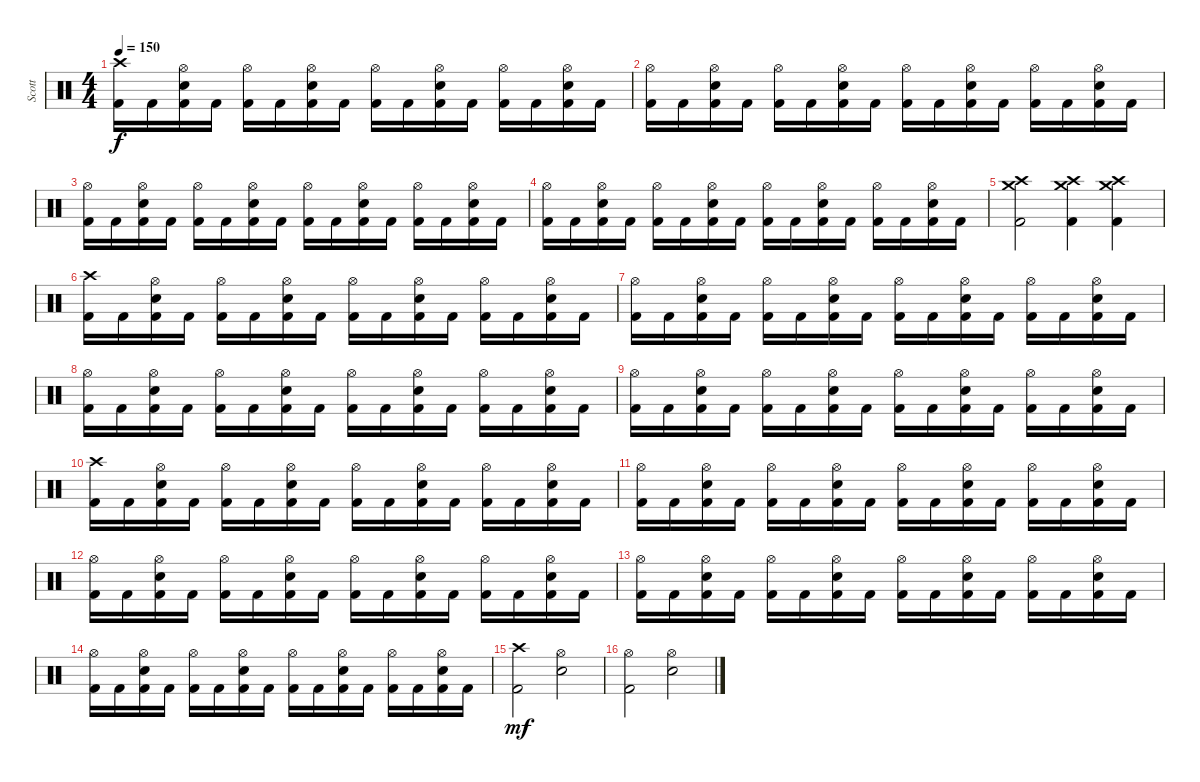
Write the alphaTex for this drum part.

\track ("Scott" "Scott") {instrument percussion}
\staff {score}
\articulation defaults
\ts (4 4)
\tempo 150
\clef neutral
\ks c
("Crash high (hit)" "Kick (hit) 2").16{dy f} "Kick (hit) 2".16 ("Hi-Hat (open)" "Snare (hit) 2" "Kick (hit) 2").16 "Kick (hit) 2".16 ("Hi-Hat (open)" "Kick (hit) 2").16 "Kick (hit) 2".16 ("Hi-Hat (open)" "Snare (hit) 2" "Kick (hit) 2").16 "Kick (hit) 2".16 ("Hi-Hat (open)" "Kick (hit) 2").16 "Kick (hit) 2".16 ("Hi-Hat (open)" "Snare (hit) 2" "Kick (hit) 2").16 "Kick (hit) 2".16 ("Hi-Hat (open)" "Kick (hit) 2").16 "Kick (hit) 2".16 ("Hi-Hat (open)" "Snare (hit) 2" "Kick (hit) 2").16 "Kick (hit) 2".16 |
("Hi-Hat (open)" "Kick (hit) 2").16 "Kick (hit) 2".16 ("Hi-Hat (open)" "Snare (hit) 2" "Kick (hit) 2").16 "Kick (hit) 2".16 ("Hi-Hat (open)" "Kick (hit) 2").16 "Kick (hit) 2".16 ("Hi-Hat (open)" "Snare (hit) 2" "Kick (hit) 2").16 "Kick (hit) 2".16 ("Hi-Hat (open)" "Kick (hit) 2").16 "Kick (hit) 2".16 ("Hi-Hat (open)" "Snare (hit) 2" "Kick (hit) 2").16 "Kick (hit) 2".16 ("Hi-Hat (open)" "Kick (hit) 2").16 "Kick (hit) 2".16 ("Hi-Hat (open)" "Snare (hit) 2" "Kick (hit) 2").16 "Kick (hit) 2".16 |
("Hi-Hat (open)" "Kick (hit) 2").16 "Kick (hit) 2".16 ("Hi-Hat (open)" "Snare (hit) 2" "Kick (hit) 2").16 "Kick (hit) 2".16 ("Hi-Hat (open)" "Kick (hit) 2").16 "Kick (hit) 2".16 ("Hi-Hat (open)" "Snare (hit) 2" "Kick (hit) 2").16 "Kick (hit) 2".16 ("Hi-Hat (open)" "Kick (hit) 2").16 "Kick (hit) 2".16 ("Hi-Hat (open)" "Snare (hit) 2" "Kick (hit) 2").16 "Kick (hit) 2".16 ("Hi-Hat (open)" "Kick (hit) 2").16 "Kick (hit) 2".16 ("Hi-Hat (open)" "Snare (hit) 2" "Kick (hit) 2").16 "Kick (hit) 2".16 |
("Hi-Hat (open)" "Kick (hit) 2").16 "Kick (hit) 2".16 ("Hi-Hat (open)" "Snare (hit) 2" "Kick (hit) 2").16 "Kick (hit) 2".16 ("Hi-Hat (open)" "Kick (hit) 2").16 "Kick (hit) 2".16 ("Hi-Hat (open)" "Snare (hit) 2" "Kick (hit) 2").16 "Kick (hit) 2".16 ("Hi-Hat (open)" "Kick (hit) 2").16 "Kick (hit) 2".16 ("Hi-Hat (open)" "Snare (hit) 2" "Kick (hit) 2").16 "Kick (hit) 2".16 ("Hi-Hat (open)" "Kick (hit) 2").16 "Kick (hit) 2".16 ("Hi-Hat (open)" "Snare (hit) 2" "Kick (hit) 2").16 "Kick (hit) 2".16 |
("Crash high (hit)" "Crash medium (hit)" "Kick (hit) 2").2 ("Crash medium (hit)" "Crash high (hit)" "Kick (hit) 2").4 ("Crash high (hit)" "Crash medium (hit)" "Kick (hit) 2").4 |
("Crash high (hit)" "Kick (hit) 2").16 "Kick (hit) 2".16 ("Hi-Hat (open)" "Snare (hit) 2" "Kick (hit) 2").16 "Kick (hit) 2".16 ("Hi-Hat (open)" "Kick (hit) 2").16 "Kick (hit) 2".16 ("Hi-Hat (open)" "Snare (hit) 2" "Kick (hit) 2").16 "Kick (hit) 2".16 ("Hi-Hat (open)" "Kick (hit) 2").16 "Kick (hit) 2".16 ("Hi-Hat (open)" "Snare (hit) 2" "Kick (hit) 2").16 "Kick (hit) 2".16 ("Hi-Hat (open)" "Kick (hit) 2").16 "Kick (hit) 2".16 ("Hi-Hat (open)" "Snare (hit) 2" "Kick (hit) 2").16 "Kick (hit) 2".16 |
("Hi-Hat (open)" "Kick (hit) 2").16 "Kick (hit) 2".16 ("Hi-Hat (open)" "Snare (hit) 2" "Kick (hit) 2").16 "Kick (hit) 2".16 ("Hi-Hat (open)" "Kick (hit) 2").16 "Kick (hit) 2".16 ("Hi-Hat (open)" "Snare (hit) 2" "Kick (hit) 2").16 "Kick (hit) 2".16 ("Hi-Hat (open)" "Kick (hit) 2").16 "Kick (hit) 2".16 ("Hi-Hat (open)" "Snare (hit) 2" "Kick (hit) 2").16 "Kick (hit) 2".16 ("Hi-Hat (open)" "Kick (hit) 2").16 "Kick (hit) 2".16 ("Hi-Hat (open)" "Snare (hit) 2" "Kick (hit) 2").16 "Kick (hit) 2".16 |
("Hi-Hat (open)" "Kick (hit) 2").16 "Kick (hit) 2".16 ("Hi-Hat (open)" "Snare (hit) 2" "Kick (hit) 2").16 "Kick (hit) 2".16 ("Hi-Hat (open)" "Kick (hit) 2").16 "Kick (hit) 2".16 ("Hi-Hat (open)" "Snare (hit) 2" "Kick (hit) 2").16 "Kick (hit) 2".16 ("Hi-Hat (open)" "Kick (hit) 2").16 "Kick (hit) 2".16 ("Hi-Hat (open)" "Snare (hit) 2" "Kick (hit) 2").16 "Kick (hit) 2".16 ("Hi-Hat (open)" "Kick (hit) 2").16 "Kick (hit) 2".16 ("Hi-Hat (open)" "Snare (hit) 2" "Kick (hit) 2").16 "Kick (hit) 2".16 |
("Hi-Hat (open)" "Kick (hit) 2").16 "Kick (hit) 2".16 ("Hi-Hat (open)" "Snare (hit) 2" "Kick (hit) 2").16 "Kick (hit) 2".16 ("Hi-Hat (open)" "Kick (hit) 2").16 "Kick (hit) 2".16 ("Hi-Hat (open)" "Snare (hit) 2" "Kick (hit) 2").16 "Kick (hit) 2".16 ("Hi-Hat (open)" "Kick (hit) 2").16 "Kick (hit) 2".16 ("Hi-Hat (open)" "Snare (hit) 2" "Kick (hit) 2").16 "Kick (hit) 2".16 ("Hi-Hat (open)" "Kick (hit) 2").16 "Kick (hit) 2".16 ("Hi-Hat (open)" "Snare (hit) 2" "Kick (hit) 2").16 "Kick (hit) 2".16 |
("Crash high (hit)" "Kick (hit) 2").16 "Kick (hit) 2".16 ("Hi-Hat (open)" "Snare (hit) 2" "Kick (hit) 2").16 "Kick (hit) 2".16 ("Hi-Hat (open)" "Kick (hit) 2").16 "Kick (hit) 2".16 ("Hi-Hat (open)" "Snare (hit) 2" "Kick (hit) 2").16 "Kick (hit) 2".16 ("Hi-Hat (open)" "Kick (hit) 2").16 "Kick (hit) 2".16 ("Hi-Hat (open)" "Snare (hit) 2" "Kick (hit) 2").16 "Kick (hit) 2".16 ("Hi-Hat (open)" "Kick (hit) 2").16 "Kick (hit) 2".16 ("Hi-Hat (open)" "Snare (hit) 2" "Kick (hit) 2").16 "Kick (hit) 2".16 |
("Hi-Hat (open)" "Kick (hit) 2").16 "Kick (hit) 2".16 ("Hi-Hat (open)" "Snare (hit) 2" "Kick (hit) 2").16 "Kick (hit) 2".16 ("Hi-Hat (open)" "Kick (hit) 2").16 "Kick (hit) 2".16 ("Hi-Hat (open)" "Snare (hit) 2" "Kick (hit) 2").16 "Kick (hit) 2".16 ("Hi-Hat (open)" "Kick (hit) 2").16 "Kick (hit) 2".16 ("Hi-Hat (open)" "Snare (hit) 2" "Kick (hit) 2").16 "Kick (hit) 2".16 ("Hi-Hat (open)" "Kick (hit) 2").16 "Kick (hit) 2".16 ("Hi-Hat (open)" "Snare (hit) 2" "Kick (hit) 2").16 "Kick (hit) 2".16 |
("Hi-Hat (open)" "Kick (hit) 2").16 "Kick (hit) 2".16 ("Hi-Hat (open)" "Snare (hit) 2" "Kick (hit) 2").16 "Kick (hit) 2".16 ("Hi-Hat (open)" "Kick (hit) 2").16 "Kick (hit) 2".16 ("Hi-Hat (open)" "Snare (hit) 2" "Kick (hit) 2").16 "Kick (hit) 2".16 ("Hi-Hat (open)" "Kick (hit) 2").16 "Kick (hit) 2".16 ("Hi-Hat (open)" "Snare (hit) 2" "Kick (hit) 2").16 "Kick (hit) 2".16 ("Hi-Hat (open)" "Kick (hit) 2").16 "Kick (hit) 2".16 ("Hi-Hat (open)" "Snare (hit) 2" "Kick (hit) 2").16 "Kick (hit) 2".16 |
("Hi-Hat (open)" "Kick (hit) 2").16 "Kick (hit) 2".16 ("Hi-Hat (open)" "Snare (hit) 2" "Kick (hit) 2").16 "Kick (hit) 2".16 ("Hi-Hat (open)" "Kick (hit) 2").16 "Kick (hit) 2".16 ("Hi-Hat (open)" "Snare (hit) 2" "Kick (hit) 2").16 "Kick (hit) 2".16 ("Hi-Hat (open)" "Kick (hit) 2").16 "Kick (hit) 2".16 ("Hi-Hat (open)" "Snare (hit) 2" "Kick (hit) 2").16 "Kick (hit) 2".16 ("Hi-Hat (open)" "Kick (hit) 2").16 "Kick (hit) 2".16 ("Hi-Hat (open)" "Snare (hit) 2" "Kick (hit) 2").16 "Kick (hit) 2".16 |
("Hi-Hat (open)" "Kick (hit) 2").16 "Kick (hit) 2".16 ("Hi-Hat (open)" "Snare (hit) 2" "Kick (hit) 2").16 "Kick (hit) 2".16 ("Hi-Hat (open)" "Kick (hit) 2").16 "Kick (hit) 2".16 ("Hi-Hat (open)" "Snare (hit) 2" "Kick (hit) 2").16 "Kick (hit) 2".16 ("Hi-Hat (open)" "Kick (hit) 2").16 "Kick (hit) 2".16 ("Hi-Hat (open)" "Snare (hit) 2" "Kick (hit) 2").16 "Kick (hit) 2".16 ("Hi-Hat (open)" "Kick (hit) 2").16 "Kick (hit) 2".16 ("Hi-Hat (open)" "Snare (hit) 2" "Kick (hit) 2").16 "Kick (hit) 2".16 |
("Crash high (hit)" "Kick (hit) 2").2{dy mf} ("Hi-Hat (open)" "Snare (hit) 2").2 |
("Hi-Hat (open)" "Kick (hit) 2").2 ("Hi-Hat (open)" "Snare (hit) 2").2
